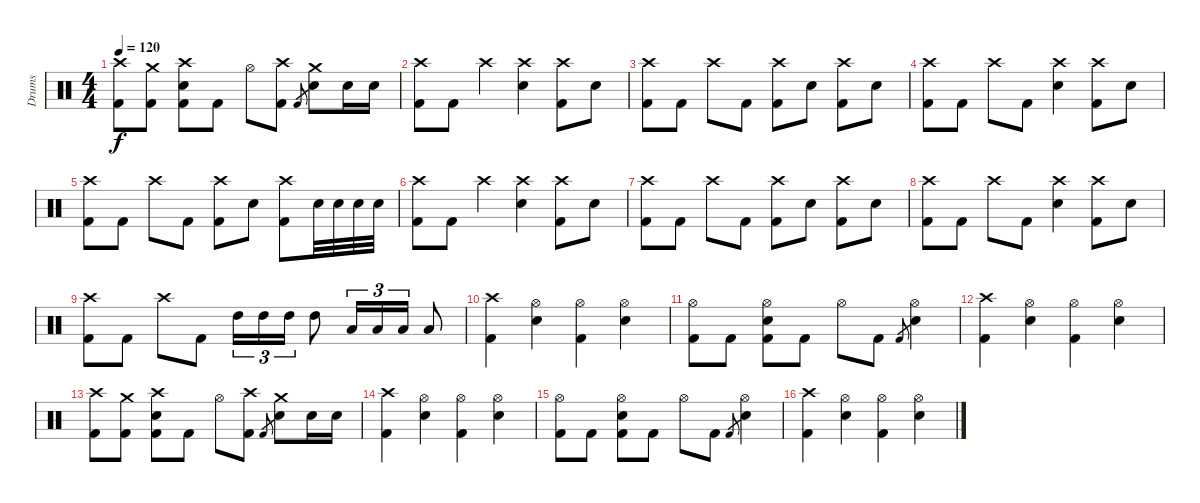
\track ("Drums" "Drums") {instrument percussion}
\staff {score}
\articulation defaults
\ts (4 4)
\tempo 120
\clef neutral
\ks c
("Crash high (hit)" "Kick (hit) 2").8{dy f} ("Crash medium (hit)" "Kick (hit) 2").8 ("Crash high (hit)" "Kick (hit) 2" "Electric Snare (hit)").8 "Kick (hit) 2".8 "Hi-Hat (open)".8 ("Crash high (hit)" "Kick (hit) 2").8 "Kick (hit) 2".8{gr} ("Crash medium (hit)" "Electric Snare (hit)").8 "Electric Snare (hit)".16 "Electric Snare (hit)".16 |
("Crash high (hit)" "Kick (hit) 2").8 "Kick (hit) 2".8 "Crash high (hit)".4 ("Crash high (hit)" "Electric Snare (hit)").4 ("Crash high (hit)" "Kick (hit) 2").8 "Electric Snare (hit)".8 |
("Crash high (hit)" "Kick (hit) 2").8 "Kick (hit) 2".8 "Crash high (hit)".8 "Kick (hit) 2".8 ("Crash high (hit)" "Kick (hit) 2").8 "Electric Snare (hit)".8 ("Crash high (hit)" "Kick (hit) 2").8 "Electric Snare (hit)".8 |
("Crash high (hit)" "Kick (hit) 2").8 "Kick (hit) 2".8 "Crash high (hit)".8 "Kick (hit) 2".8 ("Crash high (hit)" "Electric Snare (hit)").4 ("Crash high (hit)" "Kick (hit) 2").8 "Electric Snare (hit)".8 |
("Crash high (hit)" "Kick (hit) 2").8 "Kick (hit) 2".8 "Crash high (hit)".8 "Kick (hit) 2".8 ("Crash high (hit)" "Kick (hit) 2").8 "Electric Snare (hit)".8 ("Crash high (hit)" "Kick (hit) 2").8 "Electric Snare (hit)".32 "Electric Snare (hit)".32 "Electric Snare (hit)".32 "Electric Snare (hit)".32 |
("Crash high (hit)" "Kick (hit) 2").8 "Kick (hit) 2".8 "Crash high (hit)".4 ("Crash high (hit)" "Electric Snare (hit)").4 ("Crash high (hit)" "Kick (hit) 2").8 "Electric Snare (hit)".8 |
("Crash high (hit)" "Kick (hit) 2").8 "Kick (hit) 2".8 "Crash high (hit)".8 "Kick (hit) 2".8 ("Crash high (hit)" "Kick (hit) 2").8 "Electric Snare (hit)".8 ("Crash high (hit)" "Kick (hit) 2").8 "Electric Snare (hit)".8 |
("Crash high (hit)" "Kick (hit) 2").8 "Kick (hit) 2".8 "Crash high (hit)".8 "Kick (hit) 2".8 ("Crash high (hit)" "Electric Snare (hit)").4 ("Crash high (hit)" "Kick (hit) 2").8 "Electric Snare (hit)".8 |
("Crash high (hit)" "Kick (hit) 2").8 "Kick (hit) 2".8 "Crash high (hit)".8 "Kick (hit) 2".8 "High Tom (hit)".16{tu (3 2)} "High Tom (hit)".16{tu (3 2)} "High Tom (hit)".16{tu (3 2)} "High Tom (hit)".8 "Low Tom (hit)".16{tu (3 2)} "Low Tom (hit)".16{tu (3 2)} "Low Tom (hit)".16{tu (3 2)} "Low Tom (hit)".8 |
("Crash high (hit)" "Kick (hit) 2").4 ("Hi-Hat (open)" "Electric Snare (hit)").4 ("Hi-Hat (open)" "Kick (hit) 2").4 ("Hi-Hat (open)" "Electric Snare (hit)").4 |
("Hi-Hat (open)" "Kick (hit) 2").8 "Kick (hit) 2".8 ("Hi-Hat (open)" "Kick (hit) 2" "Electric Snare (hit)").8 "Kick (hit) 2".8 "Hi-Hat (open)".8 "Kick (hit) 2".8 "Kick (hit) 2".8{gr} ("Hi-Hat (open)" "Electric Snare (hit)").4 |
("Crash high (hit)" "Kick (hit) 2").4 ("Hi-Hat (open)" "Electric Snare (hit)").4 ("Hi-Hat (open)" "Kick (hit) 2").4 ("Hi-Hat (open)" "Electric Snare (hit)").4 |
("Crash high (hit)" "Kick (hit) 2").8 ("Crash medium (hit)" "Kick (hit) 2").8 ("Crash high (hit)" "Kick (hit) 2" "Electric Snare (hit)").8 "Kick (hit) 2".8 "Hi-Hat (open)".8 ("Crash high (hit)" "Kick (hit) 2").8 "Kick (hit) 2".8{gr} ("Crash medium (hit)" "Electric Snare (hit)").8 "Electric Snare (hit)".16 "Electric Snare (hit)".16 |
("Crash high (hit)" "Kick (hit) 2").4 ("Hi-Hat (open)" "Electric Snare (hit)").4 ("Hi-Hat (open)" "Kick (hit) 2").4 ("Hi-Hat (open)" "Electric Snare (hit)").4 |
("Hi-Hat (open)" "Kick (hit) 2").8 "Kick (hit) 2".8 ("Hi-Hat (open)" "Kick (hit) 2" "Electric Snare (hit)").8 "Kick (hit) 2".8 "Hi-Hat (open)".8 "Kick (hit) 2".8 "Kick (hit) 2".8{gr} ("Hi-Hat (open)" "Electric Snare (hit)").4 |
("Crash high (hit)" "Kick (hit) 2").4 ("Hi-Hat (open)" "Electric Snare (hit)").4 ("Hi-Hat (open)" "Kick (hit) 2").4 ("Hi-Hat (open)" "Electric Snare (hit)").4
